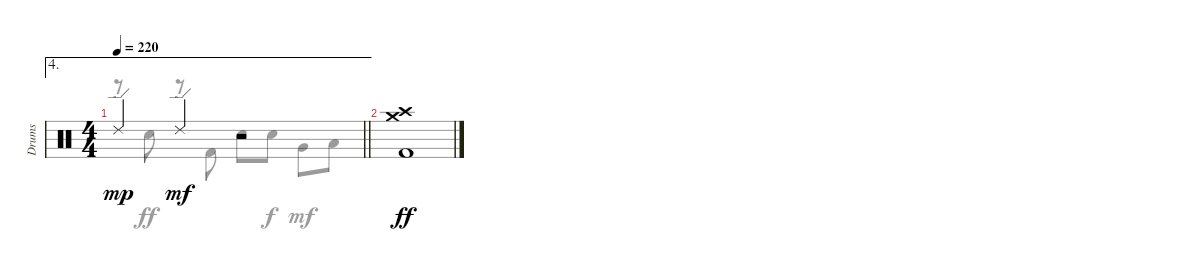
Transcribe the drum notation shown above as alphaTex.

\track ("Drums" "Drums") {instrument percussion}
\staff {score}
\articulation defaults
\voice
\ae 4
\ts (4 4)
\tempo 220
\clef neutral
\barLineRight lightlight
\ks c "Ride (edge) 2".4{dy mp} "Ride (edge) 2".4{dy mf}
r.2 |
("Crash high (hit)" "Crash medium (hit)" "Kick (hit) 2").1{dy ff}
\voice
\clef neutral
\ottava regular
\simile none
\barLineRight lightlight
\ks c
r.8{dy ff} "Electric Snare (hit)".8 r.8 "Kick (hit) 2".8 "Electric Snare (hit)".8 "Electric Snare (hit)".8{dy f} "Very Low Tom (hit)".8{dy mf} "Low Floor Tom (hit)".8 |
